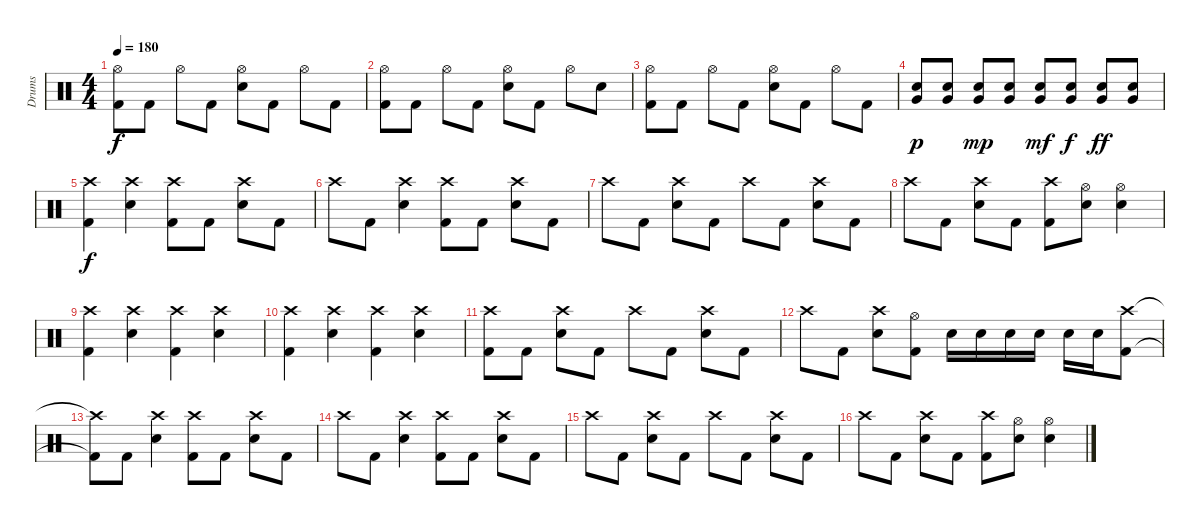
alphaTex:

\track ("Drums" "Drums") {instrument percussion}
\staff {score}
\articulation defaults
\ts (4 4)
\tempo 180
\clef neutral
\ks c
("Hi-Hat (open)" "Kick (hit) 2").8{dy f} "Kick (hit) 2".8 "Hi-Hat (open)".8 "Kick (hit) 2".8 ("Hi-Hat (open)" "Electric Snare (hit)").8 "Kick (hit) 2".8 "Hi-Hat (open)".8 "Kick (hit) 2".8 |
("Hi-Hat (open)" "Kick (hit) 2").8 "Kick (hit) 2".8 "Hi-Hat (open)".8 "Kick (hit) 2".8 ("Hi-Hat (open)" "Electric Snare (hit)").8 "Kick (hit) 2".8 "Hi-Hat (open)".8 "Electric Snare (hit)".8 |
("Hi-Hat (open)" "Kick (hit) 2").8 "Kick (hit) 2".8 "Hi-Hat (open)".8 "Kick (hit) 2".8 ("Hi-Hat (open)" "Electric Snare (hit)").8 "Kick (hit) 2".8 "Hi-Hat (open)".8 "Kick (hit) 2".8 |
("Very Low Tom (hit)" "Electric Snare (hit)").8{dy p} ("Very Low Tom (hit)" "Electric Snare (hit)").8 ("Very Low Tom (hit)" "Electric Snare (hit)").8{dy mp} ("Very Low Tom (hit)" "Electric Snare (hit)").8 ("Very Low Tom (hit)" "Electric Snare (hit)").8{dy mf} ("Very Low Tom (hit)" "Electric Snare (hit)").8{dy f} ("Very Low Tom (hit)" "Electric Snare (hit)").8{dy ff} ("Very Low Tom (hit)" "Electric Snare (hit)").8 |
("Crash high (hit)" "Kick (hit) 2").4{dy f} ("Crash high (hit)" "Electric Snare (hit)").4 ("Crash high (hit)" "Kick (hit) 2").8 "Kick (hit) 2".8 ("Crash high (hit)" "Electric Snare (hit)").8 "Kick (hit) 2".8 |
"Crash high (hit)".8 "Kick (hit) 2".8 ("Crash high (hit)" "Electric Snare (hit)").4 ("Crash high (hit)" "Kick (hit) 2").8 "Kick (hit) 2".8 ("Crash high (hit)" "Electric Snare (hit)").8 "Kick (hit) 2".8 |
"Crash high (hit)".8 "Kick (hit) 2".8 ("Crash high (hit)" "Electric Snare (hit)").8 "Kick (hit) 2".8 "Crash high (hit)".8 "Kick (hit) 2".8 ("Crash high (hit)" "Electric Snare (hit)").8 "Kick (hit) 2".8 |
"Crash high (hit)".8 "Kick (hit) 2".8 ("Crash high (hit)" "Electric Snare (hit)").8 "Kick (hit) 2".8 ("Crash high (hit)" "Kick (hit) 2").8 ("Hi-Hat (open)" "Electric Snare (hit)").8 ("Hi-Hat (open)" "Electric Snare (hit)").4 |
("Crash high (hit)" "Kick (hit) 2").4 ("Crash high (hit)" "Electric Snare (hit)").4 ("Crash high (hit)" "Kick (hit) 2").4 ("Crash high (hit)" "Electric Snare (hit)").4 |
("Crash high (hit)" "Kick (hit) 2").4 ("Crash high (hit)" "Electric Snare (hit)").4 ("Crash high (hit)" "Kick (hit) 2").4 ("Crash high (hit)" "Electric Snare (hit)").4 |
("Crash high (hit)" "Kick (hit) 2").8 "Kick (hit) 2".8 ("Crash high (hit)" "Electric Snare (hit)").8 "Kick (hit) 2".8 "Crash high (hit)".8 "Kick (hit) 2".8 ("Crash high (hit)" "Electric Snare (hit)").8 "Kick (hit) 2".8 |
"Crash high (hit)".8 "Kick (hit) 2".8 ("Crash high (hit)" "Electric Snare (hit)").8 ("Hi-Hat (open)" "Kick (hit) 2").8 "Electric Snare (hit)".16 "Electric Snare (hit)".16 "Electric Snare (hit)".16 "Electric Snare (hit)".16 "Electric Snare (hit)".16 "Electric Snare (hit)".16 ("Crash high (hit)" "Kick (hit) 2").8 |
("Crash high (hit)"{t} "Kick (hit) 2"{t}).8 "Kick (hit) 2".8 ("Crash high (hit)" "Electric Snare (hit)").4 ("Crash high (hit)" "Kick (hit) 2").8 "Kick (hit) 2".8 ("Crash high (hit)" "Electric Snare (hit)").8 "Kick (hit) 2".8 |
"Crash high (hit)".8 "Kick (hit) 2".8 ("Crash high (hit)" "Electric Snare (hit)").4 ("Crash high (hit)" "Kick (hit) 2").8 "Kick (hit) 2".8 ("Crash high (hit)" "Electric Snare (hit)").8 "Kick (hit) 2".8 |
"Crash high (hit)".8 "Kick (hit) 2".8 ("Crash high (hit)" "Electric Snare (hit)").8 "Kick (hit) 2".8 "Crash high (hit)".8 "Kick (hit) 2".8 ("Crash high (hit)" "Electric Snare (hit)").8 "Kick (hit) 2".8 |
"Crash high (hit)".8 "Kick (hit) 2".8 ("Crash high (hit)" "Electric Snare (hit)").8 "Kick (hit) 2".8 ("Crash high (hit)" "Kick (hit) 2").8 ("Hi-Hat (open)" "Electric Snare (hit)").8 ("Hi-Hat (open)" "Electric Snare (hit)").4
